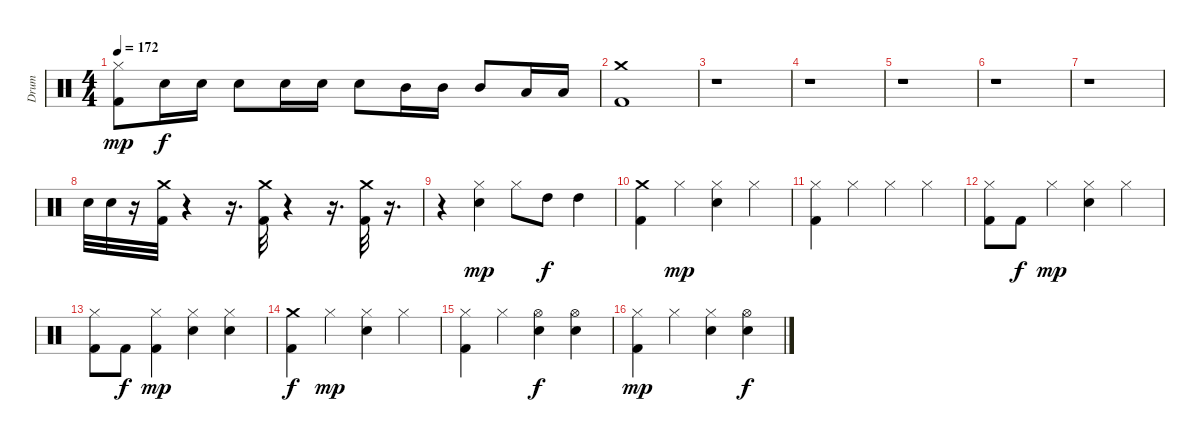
\track ("Drum" "Drum") {instrument percussion}
\staff {score}
\articulation defaults
\ts (4 4)
\tempo 172
\clef neutral
\ks c
("Hi-Hat (closed)" "Kick (hit) 2").8{dy mp} "Electric Snare (hit)".16{dy f} "Electric Snare (hit)".16 "Electric Snare (hit)".8 "Electric Snare (hit)".16 "Electric Snare (hit)".16 "Electric Snare (hit)".8 "Mid Tom (hit)".16 "Mid Tom (hit)".16 "Mid Tom (hit)".8 "Low Tom (hit)".16 "Low Tom (hit)".16 |
("Crash medium (hit)" "Kick (hit) 2").1 |
r.1 |
r.1 |
r.1 |
r.1 |
r.1 |
"Electric Snare (hit)".32 "Electric Snare (hit)".32 r.16 ("Crash medium (hit)" "Kick (hit) 2").32 r.4 r.16{d} ("Crash medium (hit)" "Kick (hit) 2").32 r.4 r.16{d} ("Crash medium (hit)" "Kick (hit) 2").32 r.16{d} |
r.4 ("Hi-Hat (closed)" "Electric Snare (hit)").4{dy mp} "Hi-Hat (closed)".8 "High Tom (hit)".8{dy f} "High Tom (hit)".4 |
("Crash medium (hit)" "Kick (hit) 2").4 "Hi-Hat (closed)".4{dy mp} ("Hi-Hat (closed)" "Electric Snare (hit)").4 "Hi-Hat (closed)".4 |
("Hi-Hat (closed)" "Kick (hit) 2").4 "Hi-Hat (closed)".4 "Hi-Hat (closed)".4 "Hi-Hat (closed)".4 |
("Hi-Hat (closed)" "Kick (hit) 2").8 "Kick (hit) 2".8{dy f} "Hi-Hat (closed)".4{dy mp} ("Hi-Hat (closed)" "Electric Snare (hit)").4 "Hi-Hat (closed)".4 |
("Hi-Hat (closed)" "Kick (hit) 2").8 "Kick (hit) 2".8{dy f} ("Hi-Hat (closed)" "Kick (hit) 2").4{dy mp} ("Hi-Hat (closed)" "Electric Snare (hit)").4 ("Hi-Hat (closed)" "Electric Snare (hit)").4 |
("Crash medium (hit)" "Kick (hit) 2").4{dy f} "Hi-Hat (closed)".4{dy mp} ("Hi-Hat (closed)" "Electric Snare (hit)").4 "Hi-Hat (closed)".4 |
("Hi-Hat (closed)" "Kick (hit) 2").4 "Hi-Hat (closed)".4 ("Hi-Hat (open)" "Electric Snare (hit)").4{dy f} ("Hi-Hat (open)" "Electric Snare (hit)").4 |
("Hi-Hat (closed)" "Kick (hit) 2").4{dy mp} "Hi-Hat (closed)".4 ("Hi-Hat (closed)" "Electric Snare (hit)").4 ("Hi-Hat (open)" "Electric Snare (hit)").4{dy f}
